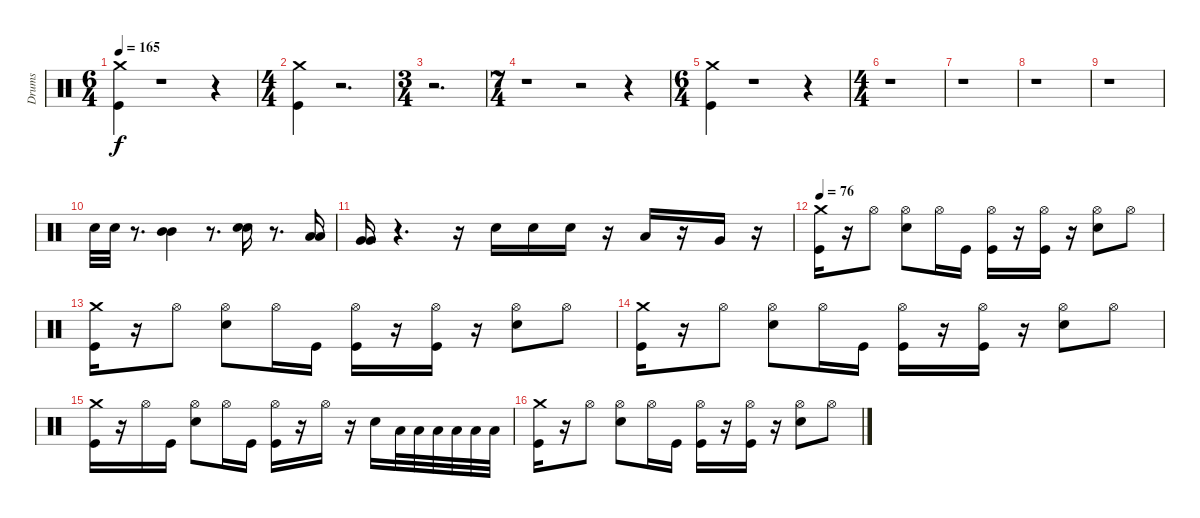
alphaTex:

\track ("Drums" "Drums") {instrument percussion}
\staff {score}
\articulation defaults
\ts (6 4)
\tempo 165
\clef neutral
\ks c
("Crash medium (hit)" "Kick (hit)").4{dy f} r.1 r.4 |
\ts (4 4)
("Crash medium (hit)" "Kick (hit)").4 r.2{d} |
\ts (3 4)
r.2{d} |
\ts (7 4)
r.1 r.2 r.4 |
\ts (6 4)
("Crash medium (hit)" "Kick (hit)").4 r.1 r.4 |
\ts (4 4)
r.1 |
r.1 |
r.1 |
r.1 |
"Electric Snare (hit)".32 "Electric Snare (hit)".32 r.8{d} ("Mid Tom (hit)" "Mid Tom (hit)").4 r.8{d} ("Electric Snare (hit)" "Electric Snare (hit)").16 r.8{d} ("Low Tom (hit)" "Low Tom (hit)").16 |
("Very Low Tom (hit)" "Very Low Tom (hit)").16 r.4{d} r.16 "Electric Snare (hit)".16 "Electric Snare (hit)".16 "Electric Snare (hit)".16 r.16 "Low Tom (hit)".16 r.16 "Very Low Tom (hit)".16 r.16 |
\tempo 76
("Crash medium (hit)" "Kick (hit)").16{volume 14 balance 8} r.16 "Hi-Hat (open)".8 ("Hi-Hat (open)" "Electric Snare (hit)").8 "Hi-Hat (open)".16 "Kick (hit)".16 ("Hi-Hat (open)" "Kick (hit)").16 r.16 ("Kick (hit)" "Hi-Hat (open)").16 r.16 ("Hi-Hat (open)" "Electric Snare (hit)").8 "Hi-Hat (open)".8 |
("Crash medium (hit)" "Kick (hit)").16 r.16 "Hi-Hat (open)".8 ("Hi-Hat (open)" "Electric Snare (hit)").8 "Hi-Hat (open)".16 "Kick (hit)".16 ("Hi-Hat (open)" "Kick (hit)").16 r.16 ("Kick (hit)" "Hi-Hat (open)").16 r.16 ("Hi-Hat (open)" "Electric Snare (hit)").8 "Hi-Hat (open)".8 |
("Crash medium (hit)" "Kick (hit)").16 r.16 "Hi-Hat (open)".8 ("Hi-Hat (open)" "Electric Snare (hit)").8 "Hi-Hat (open)".16 "Kick (hit)".16 ("Hi-Hat (open)" "Kick (hit)").16 r.16 ("Kick (hit)" "Hi-Hat (open)").16 r.16 ("Hi-Hat (open)" "Electric Snare (hit)").8 "Hi-Hat (open)".8 |
("Crash medium (hit)" "Kick (hit)").16 r.16 "Hi-Hat (open)".16 "Kick (hit)".16 ("Hi-Hat (open)" "Electric Snare (hit)").8 "Hi-Hat (open)".16 "Kick (hit)".16 ("Hi-Hat (open)" "Kick (hit)").16 r.16 "Hi-Hat (open)".16 r.16 "Electric Snare (hit)".16 "Low Tom (hit)".32 "Low Tom (hit)".32 "Low Tom (hit)".32 "Low Tom (hit)".32 "Low Tom (hit)".32 "Low Tom (hit)".32 |
("Crash medium (hit)" "Kick (hit)").16 r.16 "Hi-Hat (open)".8 ("Hi-Hat (open)" "Electric Snare (hit)").8 "Hi-Hat (open)".16 "Kick (hit)".16 ("Hi-Hat (open)" "Kick (hit)").16 r.16 ("Kick (hit)" "Hi-Hat (open)").16 r.16 ("Hi-Hat (open)" "Electric Snare (hit)").8 "Hi-Hat (open)".8
